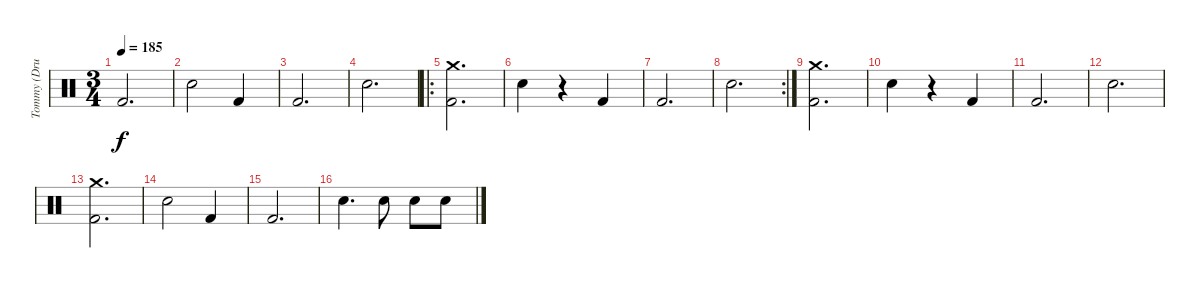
\track ("Tommy (Drums)" "Tommy (Dru") {instrument percussion}
\staff {score}
\articulation defaults
\ts (3 4)
\tempo 185
\clef neutral
\ks c "Kick (hit) 2".2{d dy f}
|
"Electric Snare (hit)".2 "Kick (hit) 2".4 |
"Kick (hit) 2".2{d} |
"Electric Snare (hit)".2{d} |
\ro
("Crash medium (hit)" "Kick (hit) 2").2{d} |
"Electric Snare (hit)".4 r.4 "Kick (hit) 2".4 |
"Kick (hit) 2".2{d} |
\rc 2 "Electric Snare (hit)".2{d}
|
("Crash medium (hit)" "Kick (hit) 2").2{d} |
"Electric Snare (hit)".4 r.4 "Kick (hit) 2".4 |
"Kick (hit) 2".2{d} |
"Electric Snare (hit)".2{d} |
("Crash medium (hit)" "Kick (hit) 2").2{d} |
"Electric Snare (hit)".2 "Kick (hit) 2".4 |
"Kick (hit) 2".2{d} |
"Electric Snare (hit)".4{d} "Electric Snare (hit)".8 "Electric Snare (hit)".8 "Electric Snare (hit)".8
